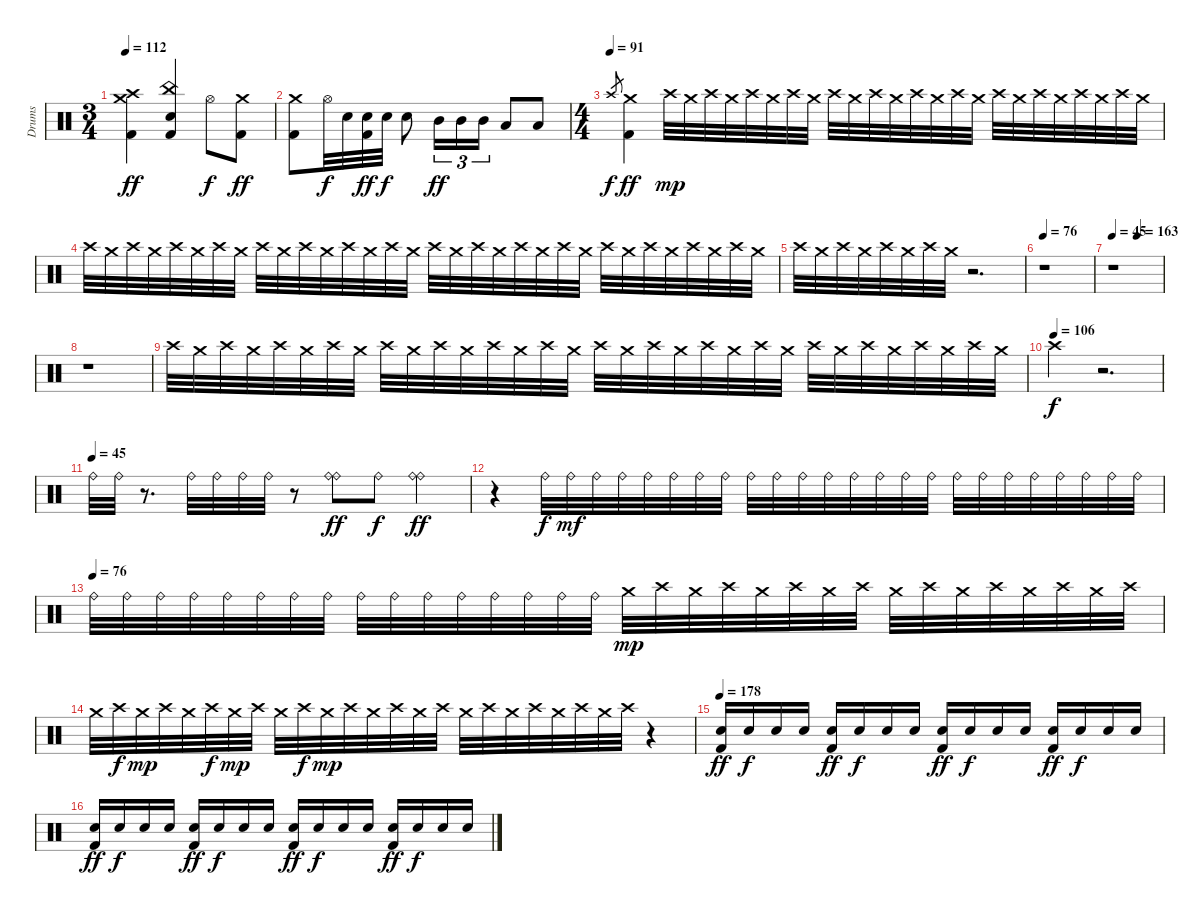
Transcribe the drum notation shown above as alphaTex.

\track ("Drums" "Drums") {instrument percussion}
\staff {score}
\articulation defaults
\ts (3 4)
\tempo 112
\clef neutral
\ks c
("Crash high (hit)" "Crash medium (hit)" "Kick (hit) 2").4{dy ff} ("China (hit)" "Electric Snare (hit)" "Kick (hit) 2").4 "Hi-Hat (open)".8{dy f} ("Crash medium (hit)" "Kick (hit) 2").8{dy ff} |
("Crash medium (hit)" "Kick (hit) 2").8 "Hi-Hat (open)".32{dy f} "Electric Snare (hit)".32 ("Electric Snare (hit)" "Kick (hit) 2").32{dy ff} "Electric Snare (hit)".32{dy f} "Electric Snare (hit)".8 "Mid Tom (hit)".16{tu (3 2) dy ff} "Mid Tom (hit)".16{tu (3 2)} "Mid Tom (hit)".16{tu (3 2)} "Low Tom (hit)".8 "Low Tom (hit)".8 |
\ts (4 4)
\tempo (91)
"Crash high (hit)".8{gr dy f} ("Crash medium (hit)" "Kick (hit) 2").4{dy ff} "Crash high (hit)".32{dy mp} "Crash medium (hit)".32 "Crash high (hit)".32 "Crash medium (hit)".32 "Crash high (hit)".32 "Crash medium (hit)".32 "Crash high (hit)".32 "Crash medium (hit)".32 "Crash high (hit)".32 "Crash medium (hit)".32 "Crash high (hit)".32 "Crash medium (hit)".32 "Crash high (hit)".32 "Crash medium (hit)".32 "Crash high (hit)".32 "Crash medium (hit)".32 "Crash high (hit)".32 "Crash medium (hit)".32 "Crash high (hit)".32 "Crash medium (hit)".32 "Crash high (hit)".32 "Crash medium (hit)".32 "Crash high (hit)".32 "Crash medium (hit)".32 |
"Crash high (hit)".32 "Crash medium (hit)".32 "Crash high (hit)".32 "Crash medium (hit)".32 "Crash high (hit)".32 "Crash medium (hit)".32 "Crash high (hit)".32 "Crash medium (hit)".32 "Crash high (hit)".32 "Crash medium (hit)".32 "Crash high (hit)".32 "Crash medium (hit)".32 "Crash high (hit)".32 "Crash medium (hit)".32 "Crash high (hit)".32 "Crash medium (hit)".32 "Crash high (hit)".32 "Crash medium (hit)".32 "Crash high (hit)".32 "Crash medium (hit)".32 "Crash high (hit)".32 "Crash medium (hit)".32 "Crash high (hit)".32 "Crash medium (hit)".32 "Crash high (hit)".32 "Crash medium (hit)".32 "Crash high (hit)".32 "Crash medium (hit)".32 "Crash high (hit)".32 "Crash medium (hit)".32 "Crash high (hit)".32 "Crash medium (hit)".32 |
"Crash high (hit)".32 "Crash medium (hit)".32 "Crash high (hit)".32 "Crash medium (hit)".32 "Crash high (hit)".32 "Crash medium (hit)".32 "Crash high (hit)".32 "Crash medium (hit)".32 r.2{d} |
\tempo 76
r.1 |
\tempo 45
\tempo (163 0.5)
r.1 |
r.1 |
"Crash high (hit)".32 "Crash medium (hit)".32 "Crash high (hit)".32 "Crash medium (hit)".32 "Crash high (hit)".32 "Crash medium (hit)".32 "Crash high (hit)".32 "Crash medium (hit)".32 "Crash high (hit)".32 "Crash medium (hit)".32 "Crash high (hit)".32 "Crash medium (hit)".32 "Crash high (hit)".32 "Crash medium (hit)".32 "Crash high (hit)".32 "Crash medium (hit)".32 "Crash high (hit)".32 "Crash medium (hit)".32 "Crash high (hit)".32 "Crash medium (hit)".32 "Crash high (hit)".32 "Crash medium (hit)".32 "Crash high (hit)".32 "Crash medium (hit)".32 "Crash high (hit)".32 "Crash medium (hit)".32 "Crash high (hit)".32 "Crash medium (hit)".32 "Crash high (hit)".32 "Crash medium (hit)".32 "Crash high (hit)".32 "Crash medium (hit)".32 |
\tempo (106)
"Crash high (hit)".4{dy f} r.2{d} |
\tempo (45)
"Ride (bell)".32 "Ride (bell)".32 r.8{d} "Ride (bell)".32 "Ride (bell)".32 "Ride (bell)".32 "Ride (bell)".32 r.8 ("Ride (bell)" "Ride (bell)").8{dy ff} "Ride (bell)".8{dy f} ("Ride (bell)" "Ride (bell)").4{dy ff} |
r.4 "Ride (bell)".32{dy f} "Ride (bell)".32{dy mf} "Ride (bell)".32 "Ride (bell)".32 "Ride (bell)".32 "Ride (bell)".32 "Ride (bell)".32 "Ride (bell)".32 "Ride (bell)".32 "Ride (bell)".32 "Ride (bell)".32 "Ride (bell)".32 "Ride (bell)".32 "Ride (bell)".32 "Ride (bell)".32 "Ride (bell)".32 "Ride (bell)".32 "Ride (bell)".32 "Ride (bell)".32 "Ride (bell)".32 "Ride (bell)".32 "Ride (bell)".32 "Ride (bell)".32 "Ride (bell)".32 |
\tempo (76)
"Ride (bell)".32 "Ride (bell)".32 "Ride (bell)".32 "Ride (bell)".32 "Ride (bell)".32 "Ride (bell)".32 "Ride (bell)".32 "Ride (bell)".32 "Ride (bell)".32 "Ride (bell)".32 "Ride (bell)".32 "Ride (bell)".32 "Ride (bell)".32 "Ride (bell)".32 "Ride (bell)".32 "Ride (bell)".32 "Crash medium (hit)".32{dy mp} "Crash high (hit)".32 "Crash medium (hit)".32 "Crash high (hit)".32 "Crash medium (hit)".32 "Crash high (hit)".32 "Crash medium (hit)".32 "Crash high (hit)".32 "Crash medium (hit)".32 "Crash high (hit)".32 "Crash medium (hit)".32 "Crash high (hit)".32 "Crash medium (hit)".32 "Crash high (hit)".32 "Crash medium (hit)".32 "Crash high (hit)".32 |
"Crash medium (hit)".32 "Crash high (hit)".32{dy f} "Crash medium (hit)".32{dy mp} "Crash high (hit)".32 "Crash medium (hit)".32 "Crash high (hit)".32{dy f} "Crash medium (hit)".32{dy mp} "Crash high (hit)".32 "Crash medium (hit)".32 "Crash high (hit)".32{dy f} "Crash medium (hit)".32{dy mp} "Crash high (hit)".32 "Crash medium (hit)".32 "Crash high (hit)".32 "Crash medium (hit)".32 "Crash high (hit)".32 "Crash medium (hit)".32 "Crash high (hit)".32 "Crash medium (hit)".32 "Crash high (hit)".32 "Crash medium (hit)".32 "Crash high (hit)".32 "Crash medium (hit)".32 "Crash high (hit)".32 r.4 |
\tempo 178
("Electric Snare (hit)" "Kick (hit) 2").16{dy ff} "Electric Snare (hit)".16{dy f} "Electric Snare (hit)".16 "Electric Snare (hit)".16 ("Electric Snare (hit)" "Kick (hit) 2").16{dy ff} "Electric Snare (hit)".16{dy f} "Electric Snare (hit)".16 "Electric Snare (hit)".16 ("Electric Snare (hit)" "Kick (hit) 2").16{dy ff} "Electric Snare (hit)".16{dy f} "Electric Snare (hit)".16 "Electric Snare (hit)".16 ("Electric Snare (hit)" "Kick (hit) 2").16{dy ff} "Electric Snare (hit)".16{dy f} "Electric Snare (hit)".16 "Electric Snare (hit)".16 |
("Electric Snare (hit)" "Kick (hit) 2").16{dy ff} "Electric Snare (hit)".16{dy f} "Electric Snare (hit)".16 "Electric Snare (hit)".16 ("Electric Snare (hit)" "Kick (hit) 2").16{dy ff} "Electric Snare (hit)".16{dy f} "Electric Snare (hit)".16 "Electric Snare (hit)".16 ("Electric Snare (hit)" "Kick (hit) 2").16{dy ff} "Electric Snare (hit)".16{dy f} "Electric Snare (hit)".16 "Electric Snare (hit)".16 ("Electric Snare (hit)" "Kick (hit) 2").16{dy ff} "Electric Snare (hit)".16{dy f} "Electric Snare (hit)".16 "Electric Snare (hit)".16
